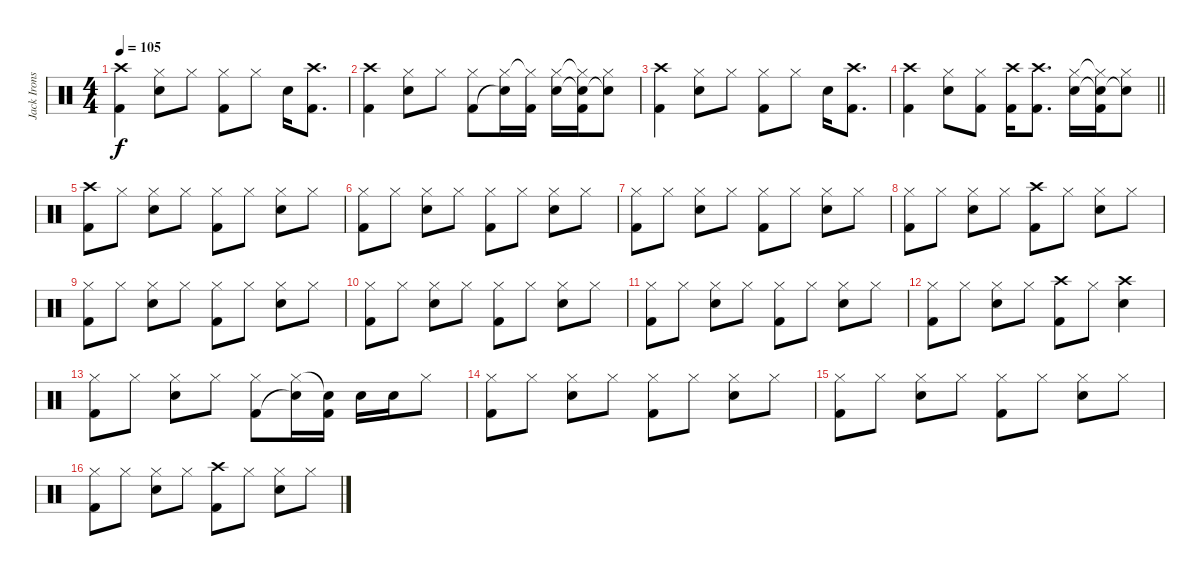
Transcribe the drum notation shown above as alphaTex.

\track ("Jack Irons" "Jack Irons") {instrument percussion}
\staff {score}
\articulation defaults
\ts (4 4)
\tempo 105
\clef neutral
\ks c
("Crash high (hit)" "Kick (hit) 2").4{dy f} ("Hi-Hat (closed)" "Snare (hit) 2").8 "Hi-Hat (closed)".8 ("Hi-Hat (closed)" "Kick (hit) 2").8 "Hi-Hat (closed)".8 "Snare (hit) 2".16 ("Crash high (hit)" "Kick (hit) 2").8{d} |
("Crash high (hit)" "Kick (hit) 2").4 ("Hi-Hat (closed)" "Snare (hit) 2").8 "Hi-Hat (closed)".8 ("Hi-Hat (closed)" "Kick (hit) 2").8 ("Hi-Hat (closed)" "Snare (hit)"{t}).16 ("Hi-Hat (closed)"{t} "Kick (hit) 2").16 ("Hi-Hat (closed)" "Snare (hit) 2").16 ("Hi-Hat (closed)"{t} "Snare (hit)"{t} "Kick (hit) 2").16 ("Hi-Hat (closed)" "Snare (hit)"{t}).8 |
("Crash high (hit)" "Kick (hit) 2").4 ("Hi-Hat (closed)" "Snare (hit) 2").8 "Hi-Hat (closed)".8 ("Hi-Hat (closed)" "Kick (hit) 2").8 "Hi-Hat (closed)".8 "Snare (hit) 2".16 ("Crash high (hit)" "Kick (hit) 2").8{d} |
\barLineRight lightlight
("Crash high (hit)" "Kick (hit) 2").4 ("Hi-Hat (closed)" "Snare (hit) 2").8 ("Hi-Hat (closed)" "Kick (hit) 2").8 ("Crash high (hit)" "Kick (hit) 2").16 ("Crash high (hit)" "Kick (hit) 2").8{d} ("Hi-Hat (closed)" "Snare (hit) 2").16 ("Hi-Hat (closed)"{t} "Snare (hit)"{t} "Kick (hit) 2").16 ("Hi-Hat (closed)" "Snare (hit)"{t}).8 |
("Crash high (hit)" "Kick (hit) 2").8 "Hi-Hat (closed)".8 ("Hi-Hat (closed)" "Snare (hit) 2").8 "Hi-Hat (closed)".8 ("Hi-Hat (closed)" "Kick (hit) 2").8 "Hi-Hat (closed)".8 ("Hi-Hat (closed)" "Snare (hit) 2").8 "Hi-Hat (closed)".8 |
("Hi-Hat (closed)" "Kick (hit) 2").8 "Hi-Hat (closed)".8 ("Hi-Hat (closed)" "Snare (hit) 2").8 "Hi-Hat (closed)".8 ("Hi-Hat (closed)" "Kick (hit) 2").8 "Hi-Hat (closed)".8 ("Hi-Hat (closed)" "Snare (hit) 2").8 "Hi-Hat (closed)".8 |
("Hi-Hat (closed)" "Kick (hit) 2").8 "Hi-Hat (closed)".8 ("Hi-Hat (closed)" "Snare (hit) 2").8 "Hi-Hat (closed)".8 ("Hi-Hat (closed)" "Kick (hit) 2").8 "Hi-Hat (closed)".8 ("Hi-Hat (closed)" "Snare (hit) 2").8 "Hi-Hat (closed)".8 |
("Hi-Hat (closed)" "Kick (hit) 2").8 "Hi-Hat (closed)".8 ("Hi-Hat (closed)" "Snare (hit) 2").8 "Hi-Hat (closed)".8 ("Crash high (hit)" "Kick (hit) 2").8 "Hi-Hat (closed)".8 ("Hi-Hat (closed)" "Snare (hit) 2").8 "Hi-Hat (closed)".8 |
("Hi-Hat (closed)" "Kick (hit) 2").8 "Hi-Hat (closed)".8 ("Hi-Hat (closed)" "Snare (hit) 2").8 "Hi-Hat (closed)".8 ("Hi-Hat (closed)" "Kick (hit) 2").8 "Hi-Hat (closed)".8 ("Hi-Hat (closed)" "Snare (hit) 2").8 "Hi-Hat (closed)".8 |
("Hi-Hat (closed)" "Kick (hit) 2").8 "Hi-Hat (closed)".8 ("Hi-Hat (closed)" "Snare (hit) 2").8 "Hi-Hat (closed)".8 ("Hi-Hat (closed)" "Kick (hit) 2").8 "Hi-Hat (closed)".8 ("Hi-Hat (closed)" "Snare (hit) 2").8 "Hi-Hat (closed)".8 |
("Hi-Hat (closed)" "Kick (hit) 2").8 "Hi-Hat (closed)".8 ("Hi-Hat (closed)" "Snare (hit) 2").8 "Hi-Hat (closed)".8 ("Hi-Hat (closed)" "Kick (hit) 2").8 "Hi-Hat (closed)".8 ("Hi-Hat (closed)" "Snare (hit) 2").8 "Hi-Hat (closed)".8 |
("Hi-Hat (closed)" "Kick (hit) 2").8 "Hi-Hat (closed)".8 ("Hi-Hat (closed)" "Snare (hit) 2").8 "Hi-Hat (closed)".8 ("Crash high (hit)" "Kick (hit) 2").8 "Hi-Hat (closed)".8 ("Crash high (hit)" "Snare (hit) 2").4 |
("Hi-Hat (closed)" "Kick (hit) 2").8 "Hi-Hat (closed)".8 ("Hi-Hat (closed)" "Snare (hit) 2").8 "Hi-Hat (closed)".8 ("Hi-Hat (closed)" "Kick (hit) 2").8 ("Hi-Hat (closed)" "Snare (hit)"{t}).16 ("Snare (hit)"{t} "Kick (hit) 2").16 "Snare (hit) 2".16 "Snare (hit) 2".16 "Hi-Hat (closed)".8 |
("Hi-Hat (closed)" "Kick (hit) 2").8 "Hi-Hat (closed)".8 ("Hi-Hat (closed)" "Snare (hit) 2").8 "Hi-Hat (closed)".8 ("Hi-Hat (closed)" "Kick (hit) 2").8 "Hi-Hat (closed)".8 ("Hi-Hat (closed)" "Snare (hit) 2").8 "Hi-Hat (closed)".8 |
("Hi-Hat (closed)" "Kick (hit) 2").8 "Hi-Hat (closed)".8 ("Hi-Hat (closed)" "Snare (hit) 2").8 "Hi-Hat (closed)".8 ("Hi-Hat (closed)" "Kick (hit) 2").8 "Hi-Hat (closed)".8 ("Hi-Hat (closed)" "Snare (hit) 2").8 "Hi-Hat (closed)".8 |
("Hi-Hat (closed)" "Kick (hit) 2").8 "Hi-Hat (closed)".8 ("Hi-Hat (closed)" "Snare (hit) 2").8 "Hi-Hat (closed)".8 ("Crash high (hit)" "Kick (hit) 2").8 "Hi-Hat (closed)".8 ("Hi-Hat (closed)" "Snare (hit) 2").8 "Hi-Hat (closed)".8
